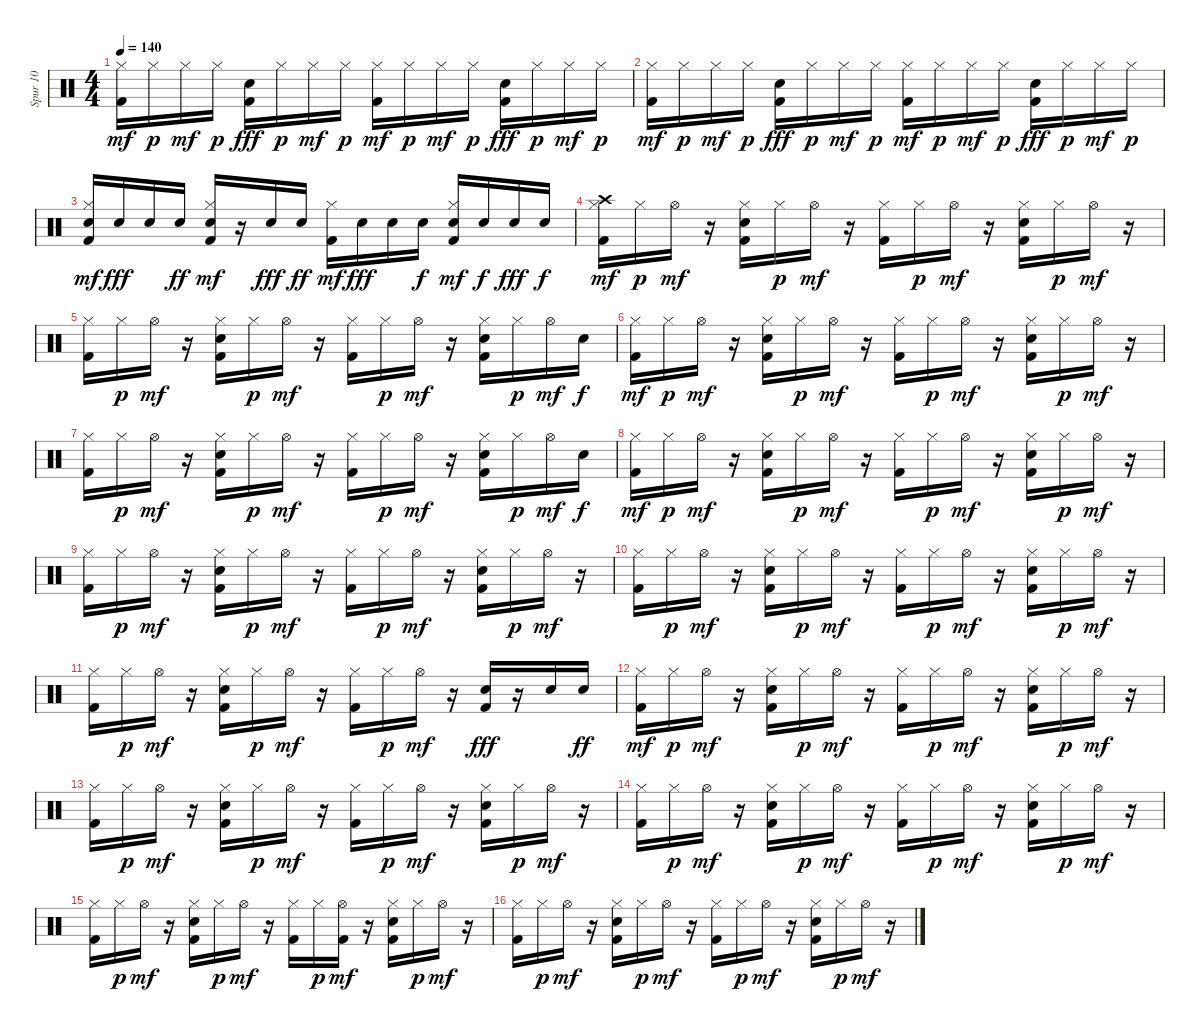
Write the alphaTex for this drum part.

\track ("Spur 10" "Spur 10") {instrument percussion}
\staff {score}
\articulation defaults
\ts (4 4)
\tempo 140
\clef neutral
\ks c
("Kick (hit) 2" "Hi-Hat (closed)").16{dy mf} "Hi-Hat (closed)".16{dy p} "Hi-Hat (closed)".16{dy mf} "Hi-Hat (closed)".16{dy p} ("Kick (hit) 2" "Snare (hit) 2").16{dy fff} "Hi-Hat (closed)".16{dy p} "Hi-Hat (closed)".16{dy mf} "Hi-Hat (closed)".16{dy p} ("Kick (hit) 2" "Hi-Hat (closed)").16{dy mf} "Hi-Hat (closed)".16{dy p} "Hi-Hat (closed)".16{dy mf} "Hi-Hat (closed)".16{dy p} ("Kick (hit) 2" "Snare (hit) 2").16{dy fff} "Hi-Hat (closed)".16{dy p} "Hi-Hat (closed)".16{dy mf} "Hi-Hat (closed)".16{dy p} |
("Kick (hit) 2" "Hi-Hat (closed)").16{dy mf} "Hi-Hat (closed)".16{dy p} "Hi-Hat (closed)".16{dy mf} "Hi-Hat (closed)".16{dy p} ("Kick (hit) 2" "Snare (hit) 2").16{dy fff} "Hi-Hat (closed)".16{dy p} "Hi-Hat (closed)".16{dy mf} "Hi-Hat (closed)".16{dy p} ("Kick (hit) 2" "Hi-Hat (closed)").16{dy mf} "Hi-Hat (closed)".16{dy p} "Hi-Hat (closed)".16{dy mf} "Hi-Hat (closed)".16{dy p} ("Kick (hit) 2" "Snare (hit) 2").16{dy fff} "Hi-Hat (closed)".16{dy p} "Hi-Hat (closed)".16{dy mf} "Hi-Hat (closed)".16{dy p} |
("Kick (hit) 2" "Snare (hit) 2" "Hi-Hat (closed)").16{dy mf} "Snare (hit) 2".16{dy fff} "Snare (hit) 2".16 "Snare (hit) 2".16{dy ff} ("Kick (hit) 2" "Snare (hit) 2" "Hi-Hat (closed)").16{dy mf} r.16 "Snare (hit) 2".16{dy fff} "Snare (hit) 2".16{dy ff} ("Kick (hit) 2" "Hi-Hat (closed)").16{dy mf} "Snare (hit) 2".16{dy fff} "Snare (hit) 2".16 "Snare (hit) 2".16{dy f} ("Kick (hit) 2" "Snare (hit) 2" "Hi-Hat (closed)").16{dy mf} "Snare (hit) 2".16{dy f} "Snare (hit) 2".16{dy fff} "Snare (hit) 2".16{dy f} |
("Kick (hit) 2" "Hi-Hat (closed)" "Crash high (hit)").16{dy mf} "Hi-Hat (closed)".16{dy p} "Hi-Hat (open)".16{dy mf} r.16 ("Kick (hit) 2" "Snare (hit) 2" "Hi-Hat (closed)").16 "Hi-Hat (closed)".16{dy p} "Hi-Hat (open)".16{dy mf} r.16 ("Kick (hit) 2" "Hi-Hat (closed)").16 "Hi-Hat (closed)".16{dy p} "Hi-Hat (open)".16{dy mf} r.16 ("Kick (hit) 2" "Snare (hit) 2" "Hi-Hat (closed)").16 "Hi-Hat (closed)".16{dy p} "Hi-Hat (open)".16{dy mf} r.16 |
("Kick (hit) 2" "Hi-Hat (closed)").16 "Hi-Hat (closed)".16{dy p} "Hi-Hat (open)".16{dy mf} r.16 ("Kick (hit) 2" "Snare (hit) 2" "Hi-Hat (closed)").16 "Hi-Hat (closed)".16{dy p} "Hi-Hat (open)".16{dy mf} r.16 ("Kick (hit) 2" "Hi-Hat (closed)").16 "Hi-Hat (closed)".16{dy p} "Hi-Hat (open)".16{dy mf} r.16 ("Kick (hit) 2" "Snare (hit) 2" "Hi-Hat (closed)").16 "Hi-Hat (closed)".16{dy p} "Hi-Hat (open)".16{dy mf} "Snare (hit) 2".16{dy f} |
("Kick (hit) 2" "Hi-Hat (closed)").16{dy mf} "Hi-Hat (closed)".16{dy p} "Hi-Hat (open)".16{dy mf} r.16 ("Kick (hit) 2" "Snare (hit) 2" "Hi-Hat (closed)").16 "Hi-Hat (closed)".16{dy p} "Hi-Hat (open)".16{dy mf} r.16 ("Kick (hit) 2" "Hi-Hat (closed)").16 "Hi-Hat (closed)".16{dy p} "Hi-Hat (open)".16{dy mf} r.16 ("Kick (hit) 2" "Snare (hit) 2" "Hi-Hat (closed)").16 "Hi-Hat (closed)".16{dy p} "Hi-Hat (open)".16{dy mf} r.16 |
("Kick (hit) 2" "Hi-Hat (closed)").16 "Hi-Hat (closed)".16{dy p} "Hi-Hat (open)".16{dy mf} r.16 ("Kick (hit) 2" "Snare (hit) 2" "Hi-Hat (closed)").16 "Hi-Hat (closed)".16{dy p} "Hi-Hat (open)".16{dy mf} r.16 ("Kick (hit) 2" "Hi-Hat (closed)").16 "Hi-Hat (closed)".16{dy p} "Hi-Hat (open)".16{dy mf} r.16 ("Kick (hit) 2" "Snare (hit) 2" "Hi-Hat (closed)").16 "Hi-Hat (closed)".16{dy p} "Hi-Hat (open)".16{dy mf} "Snare (hit) 2".16{dy f} |
("Kick (hit) 2" "Hi-Hat (closed)").16{dy mf} "Hi-Hat (closed)".16{dy p} "Hi-Hat (open)".16{dy mf} r.16 ("Kick (hit) 2" "Snare (hit) 2" "Hi-Hat (closed)").16 "Hi-Hat (closed)".16{dy p} "Hi-Hat (open)".16{dy mf} r.16 ("Kick (hit) 2" "Hi-Hat (closed)").16 "Hi-Hat (closed)".16{dy p} "Hi-Hat (open)".16{dy mf} r.16 ("Kick (hit) 2" "Snare (hit) 2" "Hi-Hat (closed)").16 "Hi-Hat (closed)".16{dy p} "Hi-Hat (open)".16{dy mf} r.16 |
("Kick (hit) 2" "Hi-Hat (closed)").16 "Hi-Hat (closed)".16{dy p} "Hi-Hat (open)".16{dy mf} r.16 ("Kick (hit) 2" "Snare (hit) 2" "Hi-Hat (closed)").16 "Hi-Hat (closed)".16{dy p} "Hi-Hat (open)".16{dy mf} r.16 ("Kick (hit) 2" "Hi-Hat (closed)").16 "Hi-Hat (closed)".16{dy p} "Hi-Hat (open)".16{dy mf} r.16 ("Kick (hit) 2" "Snare (hit) 2" "Hi-Hat (closed)").16 "Hi-Hat (closed)".16{dy p} "Hi-Hat (open)".16{dy mf} r.16 |
("Kick (hit) 2" "Hi-Hat (closed)").16 "Hi-Hat (closed)".16{dy p} "Hi-Hat (open)".16{dy mf} r.16 ("Kick (hit) 2" "Snare (hit) 2" "Hi-Hat (closed)").16 "Hi-Hat (closed)".16{dy p} "Hi-Hat (open)".16{dy mf} r.16 ("Kick (hit) 2" "Hi-Hat (closed)").16 "Hi-Hat (closed)".16{dy p} "Hi-Hat (open)".16{dy mf} r.16 ("Kick (hit) 2" "Snare (hit) 2" "Hi-Hat (closed)").16 "Hi-Hat (closed)".16{dy p} "Hi-Hat (open)".16{dy mf} r.16 |
("Kick (hit) 2" "Hi-Hat (closed)").16 "Hi-Hat (closed)".16{dy p} "Hi-Hat (open)".16{dy mf} r.16 ("Kick (hit) 2" "Snare (hit) 2" "Hi-Hat (closed)").16 "Hi-Hat (closed)".16{dy p} "Hi-Hat (open)".16{dy mf} r.16 ("Kick (hit) 2" "Hi-Hat (closed)").16 "Hi-Hat (closed)".16{dy p} "Hi-Hat (open)".16{dy mf} r.16 ("Kick (hit) 2" "Snare (hit) 2").16{dy fff} r.16 "Snare (hit) 2".16 "Snare (hit) 2".16{dy ff} |
("Kick (hit) 2" "Hi-Hat (closed)").16{dy mf} "Hi-Hat (closed)".16{dy p} "Hi-Hat (open)".16{dy mf} r.16 ("Kick (hit) 2" "Snare (hit) 2" "Hi-Hat (closed)").16 "Hi-Hat (closed)".16{dy p} "Hi-Hat (open)".16{dy mf} r.16 ("Kick (hit) 2" "Hi-Hat (closed)").16 "Hi-Hat (closed)".16{dy p} "Hi-Hat (open)".16{dy mf} r.16 ("Kick (hit) 2" "Snare (hit) 2" "Hi-Hat (closed)").16 "Hi-Hat (closed)".16{dy p} "Hi-Hat (open)".16{dy mf} r.16 |
("Kick (hit) 2" "Hi-Hat (closed)").16 "Hi-Hat (closed)".16{dy p} "Hi-Hat (open)".16{dy mf} r.16 ("Kick (hit) 2" "Snare (hit) 2" "Hi-Hat (closed)").16 "Hi-Hat (closed)".16{dy p} "Hi-Hat (open)".16{dy mf} r.16 ("Kick (hit) 2" "Hi-Hat (closed)").16 "Hi-Hat (closed)".16{dy p} "Hi-Hat (open)".16{dy mf} r.16 ("Kick (hit) 2" "Snare (hit) 2" "Hi-Hat (closed)").16 "Hi-Hat (closed)".16{dy p} "Hi-Hat (open)".16{dy mf} r.16 |
("Kick (hit) 2" "Hi-Hat (closed)").16 "Hi-Hat (closed)".16{dy p} "Hi-Hat (open)".16{dy mf} r.16 ("Kick (hit) 2" "Snare (hit) 2" "Hi-Hat (closed)").16 "Hi-Hat (closed)".16{dy p} "Hi-Hat (open)".16{dy mf} r.16 ("Kick (hit) 2" "Hi-Hat (closed)").16 "Hi-Hat (closed)".16{dy p} "Hi-Hat (open)".16{dy mf} r.16 ("Kick (hit) 2" "Snare (hit) 2" "Hi-Hat (closed)").16 "Hi-Hat (closed)".16{dy p} "Hi-Hat (open)".16{dy mf} r.16 |
("Kick (hit) 2" "Hi-Hat (closed)").16 "Hi-Hat (closed)".16{dy p} "Hi-Hat (open)".16{dy mf} r.16 ("Kick (hit) 2" "Snare (hit) 2" "Hi-Hat (closed)").16 "Hi-Hat (closed)".16{dy p} "Hi-Hat (open)".16{dy mf} r.16 ("Kick (hit) 2" "Hi-Hat (closed)").16 "Hi-Hat (closed)".16{dy p} ("Kick (hit) 2" "Hi-Hat (open)").16{dy mf} r.16 ("Kick (hit) 2" "Snare (hit) 2" "Hi-Hat (closed)").16 "Hi-Hat (closed)".16{dy p} "Hi-Hat (open)".16{dy mf} r.16 |
("Kick (hit) 2" "Hi-Hat (closed)").16 "Hi-Hat (closed)".16{dy p} "Hi-Hat (open)".16{dy mf} r.16 ("Kick (hit) 2" "Snare (hit) 2" "Hi-Hat (closed)").16 "Hi-Hat (closed)".16{dy p} "Hi-Hat (open)".16{dy mf} r.16 ("Kick (hit) 2" "Hi-Hat (closed)").16 "Hi-Hat (closed)".16{dy p} "Hi-Hat (open)".16{dy mf} r.16 ("Kick (hit) 2" "Snare (hit) 2" "Hi-Hat (closed)").16 "Hi-Hat (closed)".16{dy p} "Hi-Hat (open)".16{dy mf} r.16
